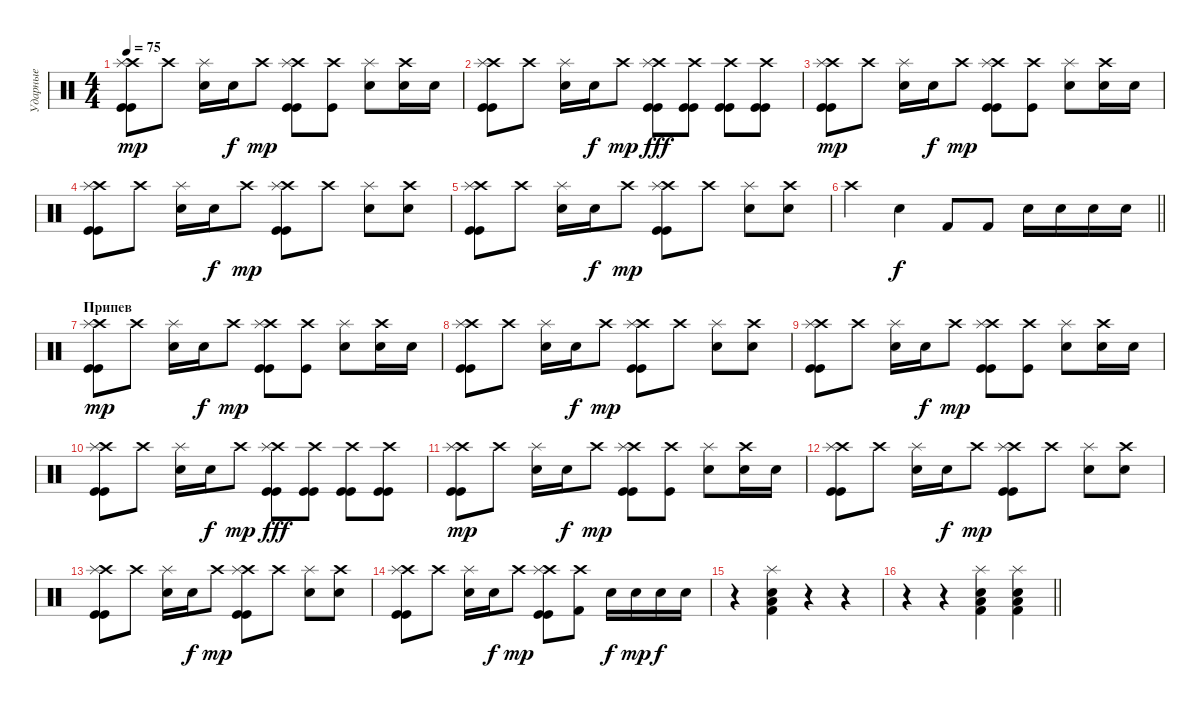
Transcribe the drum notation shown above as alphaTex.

\track ("Ударные" "Ударные") {instrument percussion}
\staff {score}
\articulation defaults
\ts (4 4)
\tempo 75
\clef neutral
\ks c
("Crash high (hit)" "Splash (hit)" "Kick (hit)" "Kick (hit)").8{dy mp} "Crash high (hit)".8 ("Splash (hit)" "Electric Snare (hit)").16 "Snare (hit) 2".16{dy f} "Crash high (hit)".8{dy mp} ("Crash high (hit)" "Splash (hit)" "Kick (hit)" "Kick (hit)").8 ("Crash high (hit)" "Kick (hit)").8 ("Splash (hit)" "Electric Snare (hit)").8 ("Crash high (hit)" "Snare (hit) 2").16 "Electric Snare (hit)".16 |
("Crash high (hit)" "Splash (hit)" "Kick (hit)" "Kick (hit)").8 "Crash high (hit)".8 ("Splash (hit)" "Electric Snare (hit)").16 "Snare (hit) 2".16{dy f} "Crash high (hit)".8{dy mp} ("Crash high (hit)" "Splash (hit)" "Kick (hit)" "Kick (hit)").8{dy fff} ("Crash high (hit)" "Kick (hit)" "Kick (hit)").8 ("Crash high (hit)" "Kick (hit)" "Kick (hit)").8 ("Crash high (hit)" "Kick (hit)" "Kick (hit)").8 |
("Crash high (hit)" "Splash (hit)" "Kick (hit)" "Kick (hit)").8{dy mp} "Crash high (hit)".8 ("Splash (hit)" "Electric Snare (hit)").16 "Snare (hit) 2".16{dy f} "Crash high (hit)".8{dy mp} ("Crash high (hit)" "Splash (hit)" "Kick (hit)" "Kick (hit)").8 ("Crash high (hit)" "Kick (hit)").8 ("Splash (hit)" "Electric Snare (hit)").8 ("Crash high (hit)" "Snare (hit) 2").16 "Electric Snare (hit)".16 |
("Crash high (hit)" "Splash (hit)" "Kick (hit)" "Kick (hit)").8 "Crash high (hit)".8 ("Splash (hit)" "Electric Snare (hit)").16 "Snare (hit) 2".16{dy f} "Crash high (hit)".8{dy mp} ("Crash high (hit)" "Splash (hit)" "Kick (hit)" "Kick (hit)").8 "Crash high (hit)".8 ("Splash (hit)" "Electric Snare (hit)").8 ("Crash high (hit)" "Snare (hit) 2").8 |
("Crash high (hit)" "Splash (hit)" "Kick (hit)" "Kick (hit)").8 "Crash high (hit)".8 ("Splash (hit)" "Electric Snare (hit)").16 "Snare (hit) 2".16{dy f} "Crash high (hit)".8{dy mp} ("Crash high (hit)" "Splash (hit)" "Kick (hit)" "Kick (hit)").8 "Crash high (hit)".8 ("Splash (hit)" "Electric Snare (hit)").8 ("Crash high (hit)" "Snare (hit) 2").8 |
\barLineRight lightlight "Crash high (hit)".4 "Electric Snare (hit)".4{dy f} "Kick (hit) 2".8 "Kick (hit) 2".8 "Electric Snare (hit)".16 "Electric Snare (hit)".16 "Electric Snare (hit)".16 "Electric Snare (hit)".16
|
\section ("" "Припев")
("Crash high (hit)" "Splash (hit)" "Kick (hit)" "Kick (hit)").8{dy mp} "Crash high (hit)".8 ("Splash (hit)" "Electric Snare (hit)").16 "Snare (hit) 2".16{dy f} "Crash high (hit)".8{dy mp} ("Crash high (hit)" "Splash (hit)" "Kick (hit)" "Kick (hit)").8 ("Crash high (hit)" "Kick (hit)").8 ("Splash (hit)" "Electric Snare (hit)").8 ("Crash high (hit)" "Snare (hit) 2").16 "Electric Snare (hit)".16 |
("Crash high (hit)" "Splash (hit)" "Kick (hit)" "Kick (hit)").8 "Crash high (hit)".8 ("Splash (hit)" "Electric Snare (hit)").16 "Snare (hit) 2".16{dy f} "Crash high (hit)".8{dy mp} ("Crash high (hit)" "Splash (hit)" "Kick (hit)" "Kick (hit)").8 "Crash high (hit)".8 ("Splash (hit)" "Electric Snare (hit)").8 ("Crash high (hit)" "Snare (hit) 2").8 |
("Crash high (hit)" "Splash (hit)" "Kick (hit)" "Kick (hit)").8 "Crash high (hit)".8 ("Splash (hit)" "Electric Snare (hit)").16 "Snare (hit) 2".16{dy f} "Crash high (hit)".8{dy mp} ("Crash high (hit)" "Splash (hit)" "Kick (hit)" "Kick (hit)").8 ("Crash high (hit)" "Kick (hit)").8 ("Splash (hit)" "Electric Snare (hit)").8 ("Crash high (hit)" "Snare (hit) 2").16 "Electric Snare (hit)".16 |
("Crash high (hit)" "Splash (hit)" "Kick (hit)" "Kick (hit)").8 "Crash high (hit)".8 ("Splash (hit)" "Electric Snare (hit)").16 "Snare (hit) 2".16{dy f} "Crash high (hit)".8{dy mp} ("Crash high (hit)" "Splash (hit)" "Kick (hit)" "Kick (hit)").8{dy fff} ("Crash high (hit)" "Kick (hit)" "Kick (hit)").8 ("Crash high (hit)" "Kick (hit)" "Kick (hit)").8 ("Crash high (hit)" "Kick (hit)" "Kick (hit)").8 |
("Crash high (hit)" "Splash (hit)" "Kick (hit)" "Kick (hit)").8{dy mp} "Crash high (hit)".8 ("Splash (hit)" "Electric Snare (hit)").16 "Snare (hit) 2".16{dy f} "Crash high (hit)".8{dy mp} ("Crash high (hit)" "Splash (hit)" "Kick (hit)" "Kick (hit)").8 ("Crash high (hit)" "Kick (hit)").8 ("Splash (hit)" "Electric Snare (hit)").8 ("Crash high (hit)" "Snare (hit) 2").16 "Electric Snare (hit)".16 |
("Crash high (hit)" "Splash (hit)" "Kick (hit)" "Kick (hit)").8 "Crash high (hit)".8 ("Splash (hit)" "Electric Snare (hit)").16 "Snare (hit) 2".16{dy f} "Crash high (hit)".8{dy mp} ("Crash high (hit)" "Splash (hit)" "Kick (hit)" "Kick (hit)").8 "Crash high (hit)".8 ("Splash (hit)" "Electric Snare (hit)").8 ("Crash high (hit)" "Snare (hit) 2").8 |
("Crash high (hit)" "Splash (hit)" "Kick (hit)" "Kick (hit)").8 "Crash high (hit)".8 ("Splash (hit)" "Electric Snare (hit)").16 "Snare (hit) 2".16{dy f} "Crash high (hit)".8{dy mp} ("Crash high (hit)" "Splash (hit)" "Kick (hit)" "Kick (hit)").8 "Crash high (hit)".8 ("Splash (hit)" "Electric Snare (hit)").8 ("Crash high (hit)" "Snare (hit) 2").8 |
("Crash high (hit)" "Splash (hit)" "Kick (hit)" "Kick (hit)").8 "Crash high (hit)".8 ("Splash (hit)" "Electric Snare (hit)").16 "Snare (hit) 2".16{dy f} "Crash high (hit)".8{dy mp} ("Crash high (hit)" "Splash (hit)" "Kick (hit)" "Kick (hit)").8 ("Crash high (hit)" "Kick (hit) 2").8 "Electric Snare (hit)".16{dy f} "Electric Snare (hit)".16{dy mp} "Electric Snare (hit)".16{dy f} "Electric Snare (hit)".16 |
r.4 ("Splash (hit)" "Electric Snare (hit)" "Low Floor Tom (hit)" "Kick (hit) 2").4 r.4 r.4 |
\barLineRight lightlight
r.4 r.4 ("Splash (hit)" "Electric Snare (hit)" "Low Floor Tom (hit)" "Kick (hit) 2").4 ("Splash (hit)" "Electric Snare (hit)" "Low Floor Tom (hit)" "Kick (hit) 2").4
